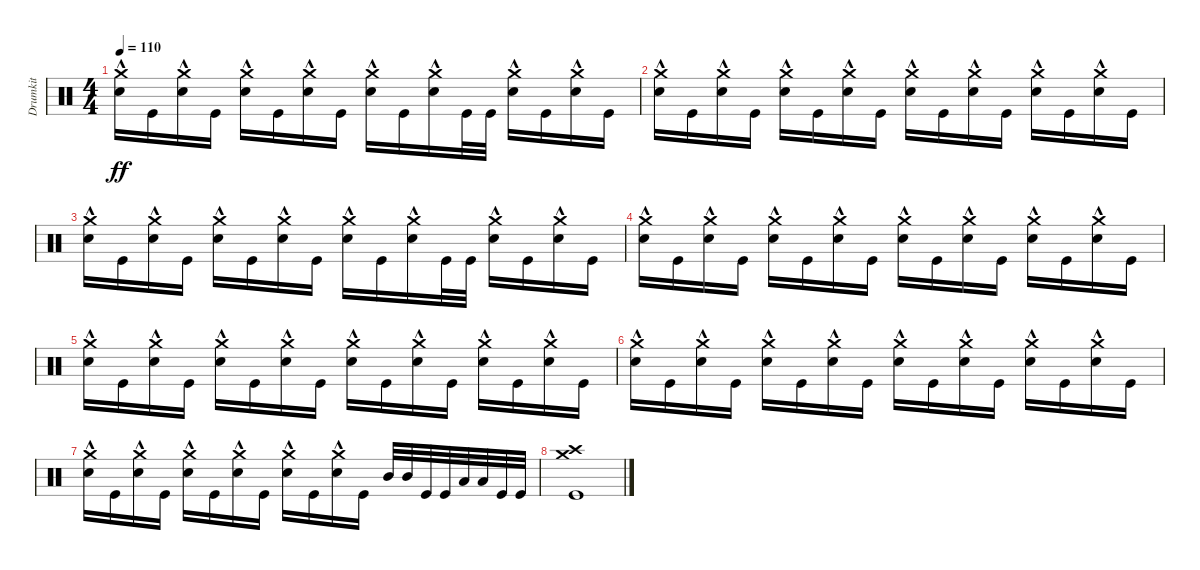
\track ("Drumkit" "Drumkit") {instrument percussion}
\staff {score}
\articulation defaults
\ts (4 4)
\tempo 110
\clef neutral
\ks c
("Snare (hit) 2"{hac} "Crash medium (hit)").16{dy ff} "Kick (hit)".16 ("Snare (hit) 2"{hac} "Crash medium (hit)").16 "Kick (hit)".16 ("Snare (hit) 2"{hac} "Crash medium (hit)").16 "Kick (hit)".16 ("Snare (hit) 2"{hac} "Crash medium (hit)").16 "Kick (hit)".16 ("Snare (hit) 2"{hac} "Crash medium (hit)").16 "Kick (hit)".16 ("Snare (hit) 2"{hac} "Crash medium (hit)").16 "Kick (hit)".32 "Kick (hit)".32 ("Snare (hit) 2"{hac} "Crash medium (hit)").16 "Kick (hit)".16 ("Snare (hit) 2"{hac} "Crash medium (hit)").16 "Kick (hit)".16 |
("Snare (hit) 2"{hac} "Crash medium (hit)").16 "Kick (hit)".16 ("Snare (hit) 2"{hac} "Crash medium (hit)").16 "Kick (hit)".16 ("Snare (hit) 2"{hac} "Crash medium (hit)").16 "Kick (hit)".16 ("Snare (hit) 2"{hac} "Crash medium (hit)").16 "Kick (hit)".16 ("Snare (hit) 2"{hac} "Crash medium (hit)").16 "Kick (hit)".16 ("Snare (hit) 2"{hac} "Crash medium (hit)").16 "Kick (hit)".16 ("Snare (hit) 2"{hac} "Crash medium (hit)").16 "Kick (hit)".16 ("Snare (hit) 2"{hac} "Crash medium (hit)").16 "Kick (hit)".16 |
("Snare (hit) 2"{hac} "Crash medium (hit)").16 "Kick (hit)".16 ("Snare (hit) 2"{hac} "Crash medium (hit)").16 "Kick (hit)".16 ("Snare (hit) 2"{hac} "Crash medium (hit)").16 "Kick (hit)".16 ("Snare (hit) 2"{hac} "Crash medium (hit)").16 "Kick (hit)".16 ("Snare (hit) 2"{hac} "Crash medium (hit)").16 "Kick (hit)".16 ("Snare (hit) 2"{hac} "Crash medium (hit)").16 "Kick (hit)".32 "Kick (hit)".32 ("Snare (hit) 2"{hac} "Crash medium (hit)").16 "Kick (hit)".16 ("Snare (hit) 2"{hac} "Crash medium (hit)").16 "Kick (hit)".16 |
("Snare (hit) 2"{hac} "Crash medium (hit)").16 "Kick (hit)".16 ("Snare (hit) 2"{hac} "Crash medium (hit)").16 "Kick (hit)".16 ("Snare (hit) 2"{hac} "Crash medium (hit)").16 "Kick (hit)".16 ("Snare (hit) 2"{hac} "Crash medium (hit)").16 "Kick (hit)".16 ("Snare (hit) 2"{hac} "Crash medium (hit)").16 "Kick (hit)".16 ("Snare (hit) 2"{hac} "Crash medium (hit)").16 "Kick (hit)".16 ("Snare (hit) 2"{hac} "Crash medium (hit)").16 "Kick (hit)".16 ("Snare (hit) 2"{hac} "Crash medium (hit)").16 "Kick (hit)".16 |
("Snare (hit) 2"{hac} "Crash medium (hit)").16 "Kick (hit)".16 ("Snare (hit) 2"{hac} "Crash medium (hit)").16 "Kick (hit)".16 ("Snare (hit) 2"{hac} "Crash medium (hit)").16 "Kick (hit)".16 ("Snare (hit) 2"{hac} "Crash medium (hit)").16 "Kick (hit)".16 ("Snare (hit) 2"{hac} "Crash medium (hit)").16 "Kick (hit)".16 ("Snare (hit) 2"{hac} "Crash medium (hit)").16 "Kick (hit)".16 ("Snare (hit) 2"{hac} "Crash medium (hit)").16 "Kick (hit)".16 ("Snare (hit) 2"{hac} "Crash medium (hit)").16 "Kick (hit)".16 |
("Snare (hit) 2"{hac} "Crash medium (hit)").16 "Kick (hit)".16 ("Snare (hit) 2"{hac} "Crash medium (hit)").16 "Kick (hit)".16 ("Snare (hit) 2"{hac} "Crash medium (hit)").16 "Kick (hit)".16 ("Snare (hit) 2"{hac} "Crash medium (hit)").16 "Kick (hit)".16 ("Snare (hit) 2"{hac} "Crash medium (hit)").16 "Kick (hit)".16 ("Snare (hit) 2"{hac} "Crash medium (hit)").16 "Kick (hit)".16 ("Snare (hit) 2"{hac} "Crash medium (hit)").16 "Kick (hit)".16 ("Snare (hit) 2"{hac} "Crash medium (hit)").16 "Kick (hit)".16 |
("Snare (hit) 2"{hac} "Crash medium (hit)").16 "Kick (hit)".16 ("Snare (hit) 2"{hac} "Crash medium (hit)").16 "Kick (hit)".16 ("Snare (hit) 2"{hac} "Crash medium (hit)").16 "Kick (hit)".16 ("Snare (hit) 2"{hac} "Crash medium (hit)").16 "Kick (hit)".16 ("Snare (hit) 2"{hac} "Crash medium (hit)").16 "Kick (hit)".16 ("Snare (hit) 2"{hac} "Crash medium (hit)").16 "Kick (hit)".16 "Mid Tom (hit)".32 "Mid Tom (hit)".32 "Kick (hit)".32 "Kick (hit)".32 "Low Tom (hit)".32 "Low Tom (hit)".32 "Kick (hit)".32 "Kick (hit)".32 |
("Kick (hit)" "Crash high (hit)" "Crash medium (hit)").1
